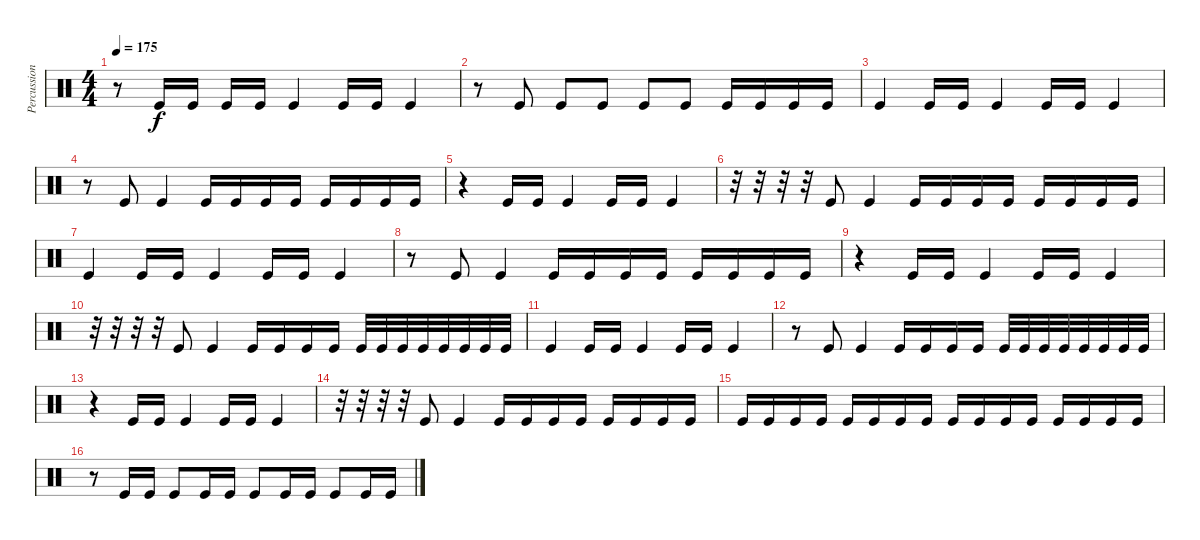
\track ("Percussion" "Percussion") {instrument percussion}
\staff {score}
\articulation defaults
\ts (4 4)
\tempo 175
\clef neutral
\ks c
r.8{dy f} "Kick (hit)".16 "Kick (hit)".16 "Kick (hit)".16 "Kick (hit)".16 "Kick (hit)".4 "Kick (hit)".16 "Kick (hit)".16 "Kick (hit)".4 |
r.8 "Kick (hit)".8 "Kick (hit)".8 "Kick (hit)".8 "Kick (hit)".8 "Kick (hit)".8 "Kick (hit)".16 "Kick (hit)".16 "Kick (hit)".16 "Kick (hit)".16 |
"Kick (hit)".4 "Kick (hit)".16 "Kick (hit)".16 "Kick (hit)".4 "Kick (hit)".16 "Kick (hit)".16 "Kick (hit)".4 |
r.8 "Kick (hit)".8 "Kick (hit)".4 "Kick (hit)".16 "Kick (hit)".16 "Kick (hit)".16 "Kick (hit)".16 "Kick (hit)".16 "Kick (hit)".16 "Kick (hit)".16 "Kick (hit)".16 |
r.4 "Kick (hit)".16 "Kick (hit)".16 "Kick (hit)".4 "Kick (hit)".16 "Kick (hit)".16 "Kick (hit)".4 |
r.32 r.32 r.32 r.32 "Kick (hit)".8 "Kick (hit)".4 "Kick (hit)".16 "Kick (hit)".16 "Kick (hit)".16 "Kick (hit)".16 "Kick (hit)".16 "Kick (hit)".16 "Kick (hit)".16 "Kick (hit)".16 |
"Kick (hit)".4 "Kick (hit)".16 "Kick (hit)".16 "Kick (hit)".4 "Kick (hit)".16 "Kick (hit)".16 "Kick (hit)".4 |
r.8 "Kick (hit)".8 "Kick (hit)".4 "Kick (hit)".16 "Kick (hit)".16 "Kick (hit)".16 "Kick (hit)".16 "Kick (hit)".16 "Kick (hit)".16 "Kick (hit)".16 "Kick (hit)".16 |
r.4 "Kick (hit)".16 "Kick (hit)".16 "Kick (hit)".4 "Kick (hit)".16 "Kick (hit)".16 "Kick (hit)".4 |
r.32 r.32 r.32 r.32 "Kick (hit)".8 "Kick (hit)".4 "Kick (hit)".16 "Kick (hit)".16 "Kick (hit)".16 "Kick (hit)".16 "Kick (hit)".32 "Kick (hit)".32 "Kick (hit)".32 "Kick (hit)".32 "Kick (hit)".32 "Kick (hit)".32 "Kick (hit)".32 "Kick (hit)".32 |
"Kick (hit)".4 "Kick (hit)".16 "Kick (hit)".16 "Kick (hit)".4 "Kick (hit)".16 "Kick (hit)".16 "Kick (hit)".4 |
r.8 "Kick (hit)".8 "Kick (hit)".4 "Kick (hit)".16 "Kick (hit)".16 "Kick (hit)".16 "Kick (hit)".16 "Kick (hit)".32 "Kick (hit)".32 "Kick (hit)".32 "Kick (hit)".32 "Kick (hit)".32 "Kick (hit)".32 "Kick (hit)".32 "Kick (hit)".32 |
r.4 "Kick (hit)".16 "Kick (hit)".16 "Kick (hit)".4 "Kick (hit)".16 "Kick (hit)".16 "Kick (hit)".4 |
r.32 r.32 r.32 r.32 "Kick (hit)".8 "Kick (hit)".4 "Kick (hit)".16 "Kick (hit)".16 "Kick (hit)".16 "Kick (hit)".16 "Kick (hit)".16 "Kick (hit)".16 "Kick (hit)".16 "Kick (hit)".16 |
"Kick (hit)".16 "Kick (hit)".16 "Kick (hit)".16 "Kick (hit)".16 "Kick (hit)".16 "Kick (hit)".16 "Kick (hit)".16 "Kick (hit)".16 "Kick (hit)".16 "Kick (hit)".16 "Kick (hit)".16 "Kick (hit)".16 "Kick (hit)".16 "Kick (hit)".16 "Kick (hit)".16 "Kick (hit)".16 |
r.8 "Kick (hit)".16 "Kick (hit)".16 "Kick (hit)".8 "Kick (hit)".16 "Kick (hit)".16 "Kick (hit)".8 "Kick (hit)".16 "Kick (hit)".16 "Kick (hit)".8 "Kick (hit)".16 "Kick (hit)".16
